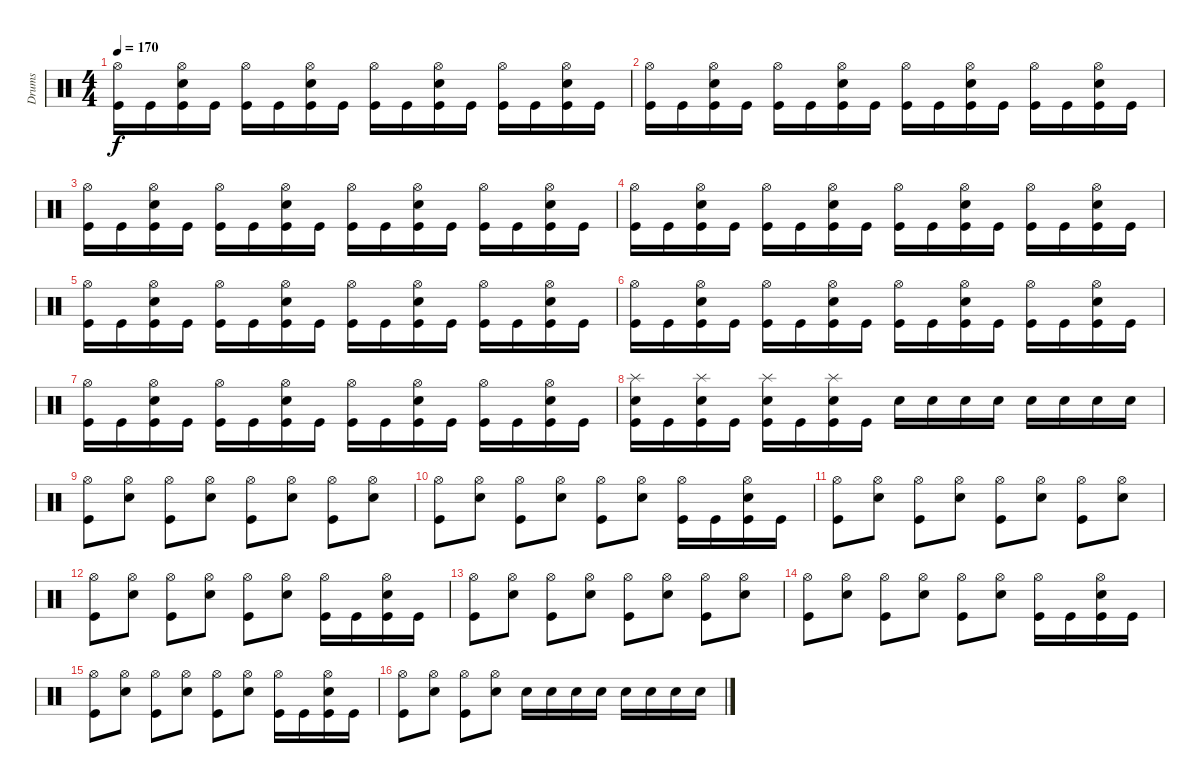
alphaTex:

\track ("Drums" "Drums") {instrument percussion}
\staff {score}
\articulation defaults
\ts (4 4)
\tempo 170
\clef neutral
\ks c
("Hi-Hat (open)" "Kick (hit)").16{dy f} "Kick (hit)".16 ("Hi-Hat (open)" "Snare (hit) 2" "Kick (hit)").16 "Kick (hit)".16 ("Hi-Hat (open)" "Kick (hit)").16 "Kick (hit)".16 ("Hi-Hat (open)" "Snare (hit) 2" "Kick (hit)").16 "Kick (hit)".16 ("Hi-Hat (open)" "Kick (hit)").16 "Kick (hit)".16 ("Hi-Hat (open)" "Snare (hit) 2" "Kick (hit)").16 "Kick (hit)".16 ("Hi-Hat (open)" "Kick (hit)").16 "Kick (hit)".16 ("Hi-Hat (open)" "Snare (hit) 2" "Kick (hit)").16 "Kick (hit)".16 |
("Hi-Hat (open)" "Kick (hit)").16 "Kick (hit)".16 ("Hi-Hat (open)" "Snare (hit) 2" "Kick (hit)").16 "Kick (hit)".16 ("Hi-Hat (open)" "Kick (hit)").16 "Kick (hit)".16 ("Hi-Hat (open)" "Snare (hit) 2" "Kick (hit)").16 "Kick (hit)".16 ("Hi-Hat (open)" "Kick (hit)").16 "Kick (hit)".16 ("Hi-Hat (open)" "Snare (hit) 2" "Kick (hit)").16 "Kick (hit)".16 ("Hi-Hat (open)" "Kick (hit)").16 "Kick (hit)".16 ("Hi-Hat (open)" "Snare (hit) 2" "Kick (hit)").16 "Kick (hit)".16 |
("Hi-Hat (open)" "Kick (hit)").16 "Kick (hit)".16 ("Hi-Hat (open)" "Snare (hit) 2" "Kick (hit)").16 "Kick (hit)".16 ("Hi-Hat (open)" "Kick (hit)").16 "Kick (hit)".16 ("Hi-Hat (open)" "Snare (hit) 2" "Kick (hit)").16 "Kick (hit)".16 ("Hi-Hat (open)" "Kick (hit)").16 "Kick (hit)".16 ("Hi-Hat (open)" "Snare (hit) 2" "Kick (hit)").16 "Kick (hit)".16 ("Hi-Hat (open)" "Kick (hit)").16 "Kick (hit)".16 ("Hi-Hat (open)" "Snare (hit) 2" "Kick (hit)").16 "Kick (hit)".16 |
("Hi-Hat (open)" "Kick (hit)").16 "Kick (hit)".16 ("Hi-Hat (open)" "Snare (hit) 2" "Kick (hit)").16 "Kick (hit)".16 ("Hi-Hat (open)" "Kick (hit)").16 "Kick (hit)".16 ("Hi-Hat (open)" "Snare (hit) 2" "Kick (hit)").16 "Kick (hit)".16 ("Hi-Hat (open)" "Kick (hit)").16 "Kick (hit)".16 ("Hi-Hat (open)" "Snare (hit) 2" "Kick (hit)").16 "Kick (hit)".16 ("Hi-Hat (open)" "Kick (hit)").16 "Kick (hit)".16 ("Hi-Hat (open)" "Snare (hit) 2" "Kick (hit)").16 "Kick (hit)".16 |
("Hi-Hat (open)" "Kick (hit)").16 "Kick (hit)".16 ("Hi-Hat (open)" "Snare (hit) 2" "Kick (hit)").16 "Kick (hit)".16 ("Hi-Hat (open)" "Kick (hit)").16 "Kick (hit)".16 ("Hi-Hat (open)" "Snare (hit) 2" "Kick (hit)").16 "Kick (hit)".16 ("Hi-Hat (open)" "Kick (hit)").16 "Kick (hit)".16 ("Hi-Hat (open)" "Snare (hit) 2" "Kick (hit)").16 "Kick (hit)".16 ("Hi-Hat (open)" "Kick (hit)").16 "Kick (hit)".16 ("Hi-Hat (open)" "Snare (hit) 2" "Kick (hit)").16 "Kick (hit)".16 |
("Hi-Hat (open)" "Kick (hit)").16 "Kick (hit)".16 ("Hi-Hat (open)" "Snare (hit) 2" "Kick (hit)").16 "Kick (hit)".16 ("Hi-Hat (open)" "Kick (hit)").16 "Kick (hit)".16 ("Hi-Hat (open)" "Snare (hit) 2" "Kick (hit)").16 "Kick (hit)".16 ("Hi-Hat (open)" "Kick (hit)").16 "Kick (hit)".16 ("Hi-Hat (open)" "Snare (hit) 2" "Kick (hit)").16 "Kick (hit)".16 ("Hi-Hat (open)" "Kick (hit)").16 "Kick (hit)".16 ("Hi-Hat (open)" "Snare (hit) 2" "Kick (hit)").16 "Kick (hit)".16 |
("Hi-Hat (open)" "Kick (hit)").16 "Kick (hit)".16 ("Hi-Hat (open)" "Snare (hit) 2" "Kick (hit)").16 "Kick (hit)".16 ("Hi-Hat (open)" "Kick (hit)").16 "Kick (hit)".16 ("Hi-Hat (open)" "Snare (hit) 2" "Kick (hit)").16 "Kick (hit)".16 ("Hi-Hat (open)" "Kick (hit)").16 "Kick (hit)".16 ("Hi-Hat (open)" "Snare (hit) 2" "Kick (hit)").16 "Kick (hit)".16 ("Hi-Hat (open)" "Kick (hit)").16 "Kick (hit)".16 ("Hi-Hat (open)" "Snare (hit) 2" "Kick (hit)").16 "Kick (hit)".16 |
("Splash (hit)" "Snare (hit) 2" "Kick (hit)").16 "Kick (hit)".16 ("Splash (hit)" "Snare (hit) 2" "Kick (hit)").16 "Kick (hit)".16 ("Splash (hit)" "Snare (hit) 2" "Kick (hit)").16 "Kick (hit)".16 ("Splash (hit)" "Snare (hit) 2" "Kick (hit)").16 "Kick (hit)".16 "Snare (hit) 2".16 "Snare (hit) 2".16 "Snare (hit) 2".16 "Snare (hit) 2".16 "Snare (hit) 2".16 "Snare (hit) 2".16 "Snare (hit) 2".16 "Snare (hit) 2".16 |
("Hi-Hat (open)" "Kick (hit)").8 ("Hi-Hat (open)" "Snare (hit) 2").8 ("Hi-Hat (open)" "Kick (hit)").8 ("Hi-Hat (open)" "Snare (hit) 2").8 ("Hi-Hat (open)" "Kick (hit)").8 ("Hi-Hat (open)" "Snare (hit) 2").8 ("Hi-Hat (open)" "Kick (hit)").8 ("Hi-Hat (open)" "Snare (hit) 2").8 |
("Hi-Hat (open)" "Kick (hit)").8 ("Hi-Hat (open)" "Snare (hit) 2").8 ("Hi-Hat (open)" "Kick (hit)").8 ("Hi-Hat (open)" "Snare (hit) 2").8 ("Hi-Hat (open)" "Kick (hit)").8 ("Hi-Hat (open)" "Snare (hit) 2").8 ("Hi-Hat (open)" "Kick (hit)").16 "Kick (hit)".16 ("Hi-Hat (open)" "Snare (hit) 2" "Kick (hit)").16 "Kick (hit)".16 |
("Hi-Hat (open)" "Kick (hit)").8 ("Hi-Hat (open)" "Snare (hit) 2").8 ("Hi-Hat (open)" "Kick (hit)").8 ("Hi-Hat (open)" "Snare (hit) 2").8 ("Hi-Hat (open)" "Kick (hit)").8 ("Hi-Hat (open)" "Snare (hit) 2").8 ("Hi-Hat (open)" "Kick (hit)").8 ("Hi-Hat (open)" "Snare (hit) 2").8 |
("Hi-Hat (open)" "Kick (hit)").8 ("Hi-Hat (open)" "Snare (hit) 2").8 ("Hi-Hat (open)" "Kick (hit)").8 ("Hi-Hat (open)" "Snare (hit) 2").8 ("Hi-Hat (open)" "Kick (hit)").8 ("Hi-Hat (open)" "Snare (hit) 2").8 ("Hi-Hat (open)" "Kick (hit)").16 "Kick (hit)".16 ("Hi-Hat (open)" "Snare (hit) 2" "Kick (hit)").16 "Kick (hit)".16 |
("Hi-Hat (open)" "Kick (hit)").8 ("Hi-Hat (open)" "Snare (hit) 2").8 ("Hi-Hat (open)" "Kick (hit)").8 ("Hi-Hat (open)" "Snare (hit) 2").8 ("Hi-Hat (open)" "Kick (hit)").8 ("Hi-Hat (open)" "Snare (hit) 2").8 ("Hi-Hat (open)" "Kick (hit)").8 ("Hi-Hat (open)" "Snare (hit) 2").8 |
("Hi-Hat (open)" "Kick (hit)").8 ("Hi-Hat (open)" "Snare (hit) 2").8 ("Hi-Hat (open)" "Kick (hit)").8 ("Hi-Hat (open)" "Snare (hit) 2").8 ("Hi-Hat (open)" "Kick (hit)").8 ("Hi-Hat (open)" "Snare (hit) 2").8 ("Hi-Hat (open)" "Kick (hit)").16 "Kick (hit)".16 ("Hi-Hat (open)" "Snare (hit) 2" "Kick (hit)").16 "Kick (hit)".16 |
("Hi-Hat (open)" "Kick (hit)").8 ("Hi-Hat (open)" "Snare (hit) 2").8 ("Hi-Hat (open)" "Kick (hit)").8 ("Hi-Hat (open)" "Snare (hit) 2").8 ("Hi-Hat (open)" "Kick (hit)").8 ("Hi-Hat (open)" "Snare (hit) 2").8 ("Hi-Hat (open)" "Kick (hit)").16 "Kick (hit)".16 ("Hi-Hat (open)" "Snare (hit) 2" "Kick (hit)").16 "Kick (hit)".16 |
("Hi-Hat (open)" "Kick (hit)").8 ("Hi-Hat (open)" "Snare (hit) 2").8 ("Hi-Hat (open)" "Kick (hit)").8 ("Hi-Hat (open)" "Snare (hit) 2").8 "Snare (hit) 2".16 "Snare (hit) 2".16 "Snare (hit) 2".16 "Snare (hit) 2".16 "Snare (hit) 2".16 "Snare (hit) 2".16 "Snare (hit) 2".16 "Snare (hit) 2".16
